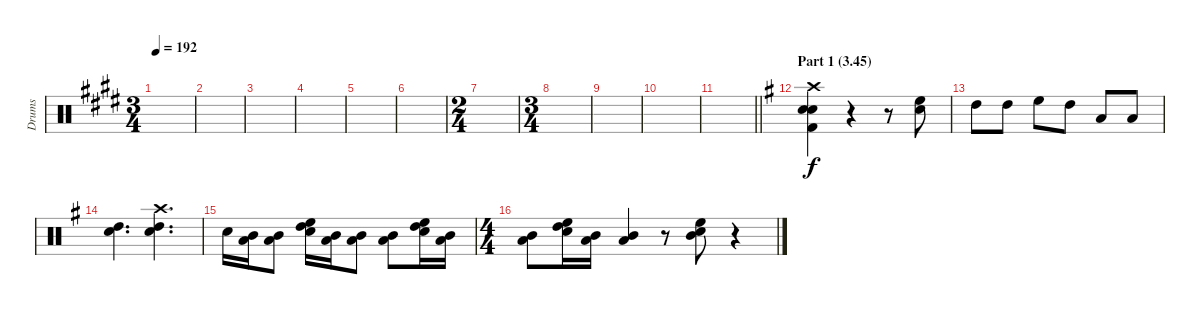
\track ("Drums" "Drums") {instrument percussion}
\staff {score}
\articulation defaults
\ts (3 4)
\tempo 192
\clef neutral
\ks e
|
|
|
|
|
|
\ts (2 4)
|
\ts (3 4)
|
|
|
\barLineRight lightlight
|
\section ("" "Part 1 (3.45)")
\ks g
("Kick (hit) 2" "Snare (hit) 2" "Electric Snare (hit)" "Crash high (hit)").4 r.4 r.8 ("High Floor Tom (hit)" "Electric Snare (hit)").8 |
"High Tom (hit)".8 "High Tom (hit)".8 "High Floor Tom (hit)".8 "High Tom (hit)".8 "Low Tom (hit)".8 "Low Tom (hit)".8 |
("Electric Snare (hit)" "High Tom (hit)").4{d} ("Electric Snare (hit)" "High Tom (hit)" "Crash high (hit)").4{d} |
"Electric Snare (hit)".16 ("Mid Tom (hit)" "Low Tom (hit)").16 ("Mid Tom (hit)" "Low Tom (hit)").8 ("High Floor Tom (hit)" "High Tom (hit)" "Electric Snare (hit)").16 ("Mid Tom (hit)" "Low Tom (hit)").16 ("Mid Tom (hit)" "Low Tom (hit)").8 ("Mid Tom (hit)" "Low Tom (hit)").8 ("High Floor Tom (hit)" "High Tom (hit)" "Electric Snare (hit)").16 ("Mid Tom (hit)" "Low Tom (hit)").16 |
\ts (4 4)
("Mid Tom (hit)" "Low Tom (hit)").8 ("High Floor Tom (hit)" "High Tom (hit)" "Electric Snare (hit)").16 ("Mid Tom (hit)" "Low Tom (hit)").16 ("Mid Tom (hit)" "Low Tom (hit)").4 r.8 ("Mid Tom (hit)" "High Floor Tom (hit)" "Electric Snare (hit)").8 r.4
